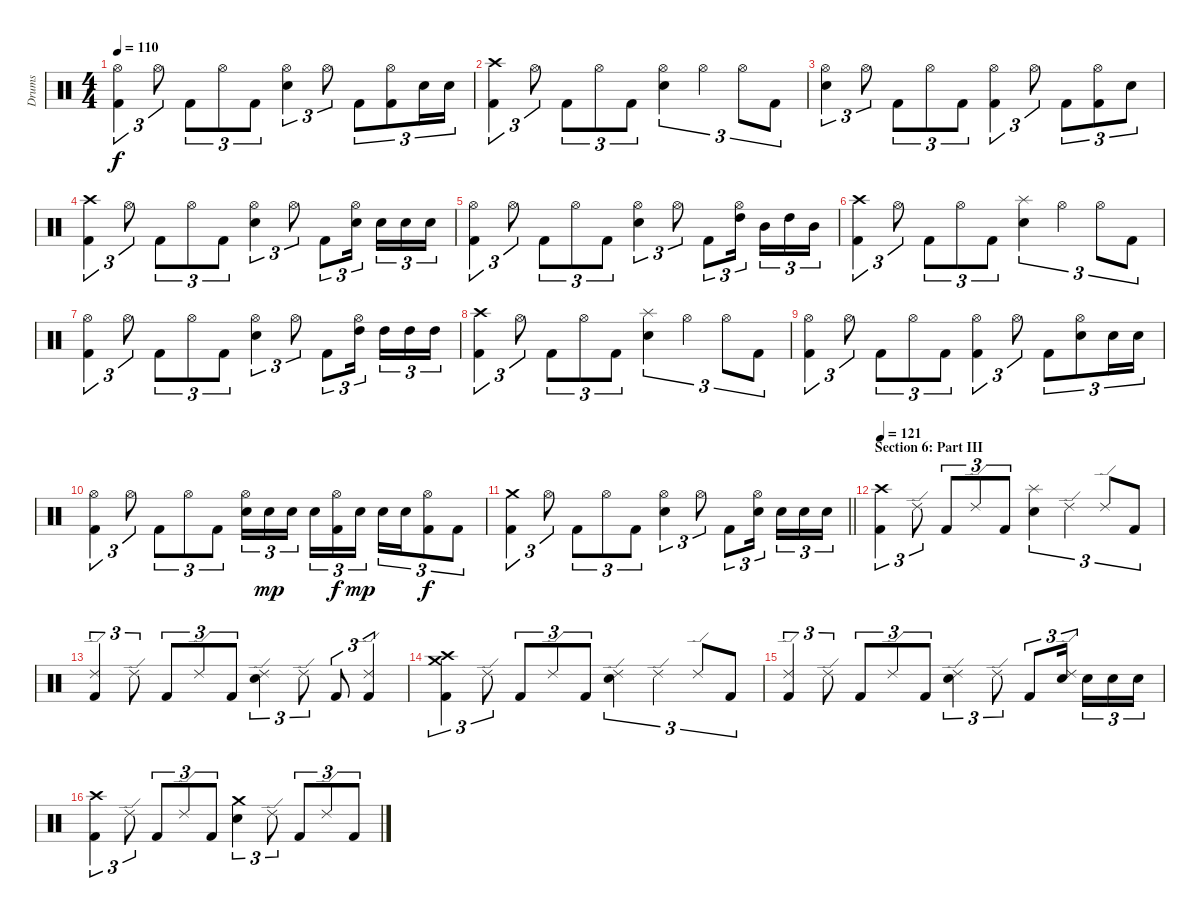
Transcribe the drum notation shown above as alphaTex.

\track ("Drums" "Drums") {instrument percussion}
\staff {score}
\articulation defaults
\ts (4 4)
\tempo 110
\clef neutral
\ks c
("Hi-Hat (open)" "Kick (hit) 2").4{tu (3 2) dy f} "Hi-Hat (open)".8{tu (3 2)} "Kick (hit) 2".8{tu (3 2)} "Hi-Hat (open)".8{tu (3 2)} "Kick (hit) 2".8{tu (3 2)} ("Hi-Hat (open)" "Electric Snare (hit)").4{tu (3 2)} "Hi-Hat (open)".8{tu (3 2)} "Kick (hit) 2".8{tu (3 2)} ("Hi-Hat (open)" "Kick (hit) 2").8{tu (3 2)} "Electric Snare (hit)".16{tu (3 2)} "Electric Snare (hit)".16{tu (3 2)} |
("Crash high (hit)" "Kick (hit) 2").4{tu (3 2)} "Hi-Hat (open)".8{tu (3 2)} "Kick (hit) 2".8{tu (3 2)} "Hi-Hat (open)".8{tu (3 2)} "Kick (hit) 2".8{tu (3 2)} ("Hi-Hat (open)" "Electric Snare (hit)").4{tu (3 2)} "Hi-Hat (open)".4{tu (3 2)} "Hi-Hat (open)".8{tu (3 2)} "Kick (hit) 2".8{tu (3 2)} |
("Hi-Hat (open)" "Electric Snare (hit)").4{tu (3 2)} "Hi-Hat (open)".8{tu (3 2)} "Kick (hit) 2".8{tu (3 2)} "Hi-Hat (open)".8{tu (3 2)} "Kick (hit) 2".8{tu (3 2)} ("Hi-Hat (open)" "Kick (hit) 2").4{tu (3 2)} "Hi-Hat (open)".8{tu (3 2)} "Kick (hit) 2".8{tu (3 2)} ("Hi-Hat (open)" "Kick (hit) 2").8{tu (3 2)} "Electric Snare (hit)".8{tu (3 2)} |
("Crash high (hit)" "Kick (hit) 2").4{tu (3 2)} "Hi-Hat (open)".8{tu (3 2)} "Kick (hit) 2".8{tu (3 2)} "Hi-Hat (open)".8{tu (3 2)} "Kick (hit) 2".8{tu (3 2)} ("Hi-Hat (open)" "Electric Snare (hit)").4{tu (3 2)} "Hi-Hat (open)".8{tu (3 2)} "Kick (hit) 2".8{tu (3 2)} ("Hi-Hat (open)" "Electric Snare (hit)").16{tu (3 2) beam splitsecondary} "Electric Snare (hit)".16{tu (3 2)} "Electric Snare (hit)".16{tu (3 2)} "Electric Snare (hit)".16{tu (3 2)} |
("Hi-Hat (open)" "Kick (hit) 2").4{tu (3 2)} "Hi-Hat (open)".8{tu (3 2)} "Kick (hit) 2".8{tu (3 2)} "Hi-Hat (open)".8{tu (3 2)} "Kick (hit) 2".8{tu (3 2)} ("Hi-Hat (open)" "Electric Snare (hit)").4{tu (3 2)} "Hi-Hat (open)".8{tu (3 2)} "Kick (hit) 2".8{tu (3 2)} ("Hi-Hat (open)" "High Tom (hit)").16{tu (3 2) beam splitsecondary} "Mid Tom (hit)".16{tu (3 2)} "High Tom (hit)".16{tu (3 2)} "Mid Tom (hit)".16{tu (3 2)} |
("Crash high (hit)" "Kick (hit) 2").4{tu (3 2)} "Hi-Hat (open)".8{tu (3 2)} "Kick (hit) 2".8{tu (3 2)} "Hi-Hat (open)".8{tu (3 2)} "Kick (hit) 2".8{tu (3 2)} ("Splash (hit)" "Electric Snare (hit)").4{tu (3 2)} "Hi-Hat (open)".4{tu (3 2)} "Hi-Hat (open)".8{tu (3 2)} "Kick (hit) 2".8{tu (3 2)} |
("Hi-Hat (open)" "Kick (hit) 2").4{tu (3 2)} "Hi-Hat (open)".8{tu (3 2)} "Kick (hit) 2".8{tu (3 2)} "Hi-Hat (open)".8{tu (3 2)} "Kick (hit) 2".8{tu (3 2)} ("Hi-Hat (open)" "Electric Snare (hit)").4{tu (3 2)} "Hi-Hat (open)".8{tu (3 2)} "Kick (hit) 2".8{tu (3 2)} ("Hi-Hat (open)" "High Tom (hit)").16{tu (3 2) beam splitsecondary} "High Tom (hit)".16{tu (3 2)} "High Tom (hit)".16{tu (3 2)} "High Tom (hit)".16{tu (3 2)} |
("Crash high (hit)" "Kick (hit) 2").4{tu (3 2)} "Hi-Hat (open)".8{tu (3 2)} "Kick (hit) 2".8{tu (3 2)} "Hi-Hat (open)".8{tu (3 2)} "Kick (hit) 2".8{tu (3 2)} ("Splash (hit)" "Electric Snare (hit)").4{tu (3 2)} "Hi-Hat (open)".4{tu (3 2)} "Hi-Hat (open)".8{tu (3 2)} "Kick (hit) 2".8{tu (3 2)} |
("Hi-Hat (open)" "Kick (hit) 2").4{tu (3 2)} "Hi-Hat (open)".8{tu (3 2)} "Kick (hit) 2".8{tu (3 2)} "Hi-Hat (open)".8{tu (3 2)} "Kick (hit) 2".8{tu (3 2)} ("Hi-Hat (open)" "Kick (hit) 2").4{tu (3 2)} "Hi-Hat (open)".8{tu (3 2)} "Kick (hit) 2".8{tu (3 2)} ("Hi-Hat (open)" "Electric Snare (hit)").8{tu (3 2)} "Electric Snare (hit)".16{tu (3 2)} "Electric Snare (hit)".16{tu (3 2)} |
("Hi-Hat (open)" "Kick (hit) 2").4{tu (3 2)} "Hi-Hat (open)".8{tu (3 2)} "Kick (hit) 2".8{tu (3 2)} "Hi-Hat (open)".8{tu (3 2)} "Kick (hit) 2".8{tu (3 2)} ("Hi-Hat (open)" "Electric Snare (hit)").16{tu (3 2)} "Electric Snare (hit)".16{tu (3 2) dy mp} "Electric Snare (hit)".16{tu (3 2) beam splitsecondary} "Electric Snare (hit)".16{tu (3 2)} ("Hi-Hat (open)" "Kick (hit) 2").16{tu (3 2) dy f} "Electric Snare (hit)".16{tu (3 2) dy mp} "Electric Snare (hit)".16{tu (3 2)} "Electric Snare (hit)".16{tu (3 2)} ("Hi-Hat (open)" "Kick (hit) 2").8{tu (3 2) dy f} "Kick (hit) 2".8{tu (3 2)} |
\barLineRight lightlight
("Crash medium (hit)" "Kick (hit) 2").4{tu (3 2)} "Hi-Hat (open)".8{tu (3 2)} "Kick (hit) 2".8{tu (3 2)} "Hi-Hat (open)".8{tu (3 2)} "Kick (hit) 2".8{tu (3 2)} ("Hi-Hat (open)" "Electric Snare (hit)").4{tu (3 2)} "Hi-Hat (open)".8{tu (3 2)} "Kick (hit) 2".8{tu (3 2)} ("Hi-Hat (open)" "Electric Snare (hit)").16{tu (3 2) beam splitsecondary} "Electric Snare (hit)".16{tu (3 2)} "Electric Snare (hit)".16{tu (3 2)} "Electric Snare (hit)".16{tu (3 2)} |
\section ("" "Section 6: Part III")
\tempo 121
("Crash high (hit)" "Kick (hit) 2").4{tu (3 2) volume 16} "Ride (edge) 2".8{tu (3 2)} "Kick (hit) 2".8{tu (3 2)} "Ride (edge) 2".8{tu (3 2)} "Kick (hit) 2".8{tu (3 2)} ("Splash (hit)" "Electric Snare (hit)").4{tu (3 2)} "Ride (edge) 2".4{tu (3 2)} "Ride (edge) 2".8{tu (3 2)} "Kick (hit) 2".8{tu (3 2)} |
("Ride (edge) 2" "Kick (hit) 2").4{tu (3 2)} "Ride (edge) 2".8{tu (3 2)} "Kick (hit) 2".8{tu (3 2)} "Ride (edge) 2".8{tu (3 2)} "Kick (hit) 2".8{tu (3 2)} ("Ride (edge) 2" "Electric Snare (hit)").4{tu (3 2)} "Ride (edge) 2".8{tu (3 2)} "Kick (hit) 2".8{tu (3 2)} ("Ride (edge) 2" "Kick (hit) 2").4{tu (3 2)} |
("Crash medium (hit)" "Crash high (hit)" "Kick (hit) 2").4{tu (3 2)} "Ride (edge) 2".8{tu (3 2)} "Kick (hit) 2".8{tu (3 2)} "Ride (edge) 2".8{tu (3 2)} "Kick (hit) 2".8{tu (3 2)} ("Ride (edge) 2" "Electric Snare (hit)").4{tu (3 2)} "Ride (edge) 2".4{tu (3 2)} "Ride (edge) 2".8{tu (3 2)} "Kick (hit) 2".8{tu (3 2)} |
("Ride (edge) 2" "Kick (hit) 2").4{tu (3 2)} "Ride (edge) 2".8{tu (3 2)} "Kick (hit) 2".8{tu (3 2)} "Ride (edge) 2".8{tu (3 2)} "Kick (hit) 2".8{tu (3 2)} ("Ride (edge) 2" "Electric Snare (hit)").4{tu (3 2)} "Ride (edge) 2".8{tu (3 2)} "Kick (hit) 2".8{tu (3 2)} ("Ride (edge) 2" "Electric Snare (hit)").16{tu (3 2) beam splitsecondary} "Electric Snare (hit)".16{tu (3 2)} "Electric Snare (hit)".16{tu (3 2)} "Electric Snare (hit)".16{tu (3 2)} |
("Crash high (hit)" "Kick (hit) 2").4{tu (3 2)} "Ride (edge) 2".8{tu (3 2)} "Kick (hit) 2".8{tu (3 2)} "Ride (edge) 2".8{tu (3 2)} "Kick (hit) 2".8{tu (3 2)} ("Crash medium (hit)" "Electric Snare (hit)").4{tu (3 2)} "Ride (edge) 2".8{tu (3 2)} "Kick (hit) 2".8{tu (3 2)} "Ride (edge) 2".8{tu (3 2)} "Kick (hit) 2".8{tu (3 2)}
